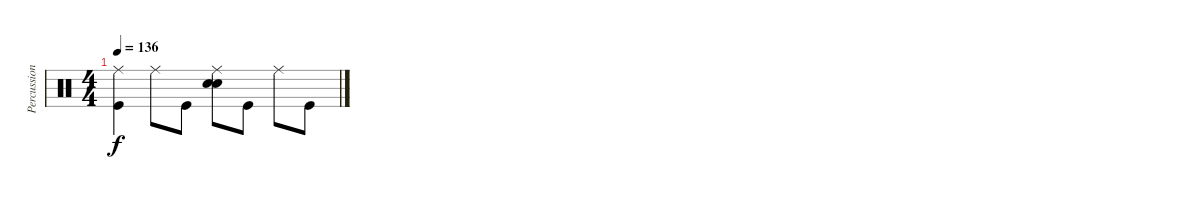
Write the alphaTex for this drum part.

\track ("Percussion" "Percussion") {instrument percussion}
\staff {score}
\articulation defaults
\ts (4 4)
\tempo 136
\clef neutral
\ks c
("Ride (middle)" "Kick (hit)").4{dy f} "Ride (middle)".8 "Kick (hit)".8 ("Hand Clap (hit)" "Ride (middle)" "Snare (hit) 2").8 "Kick (hit)".8 "Ride (middle)".8 "Kick (hit)".8
